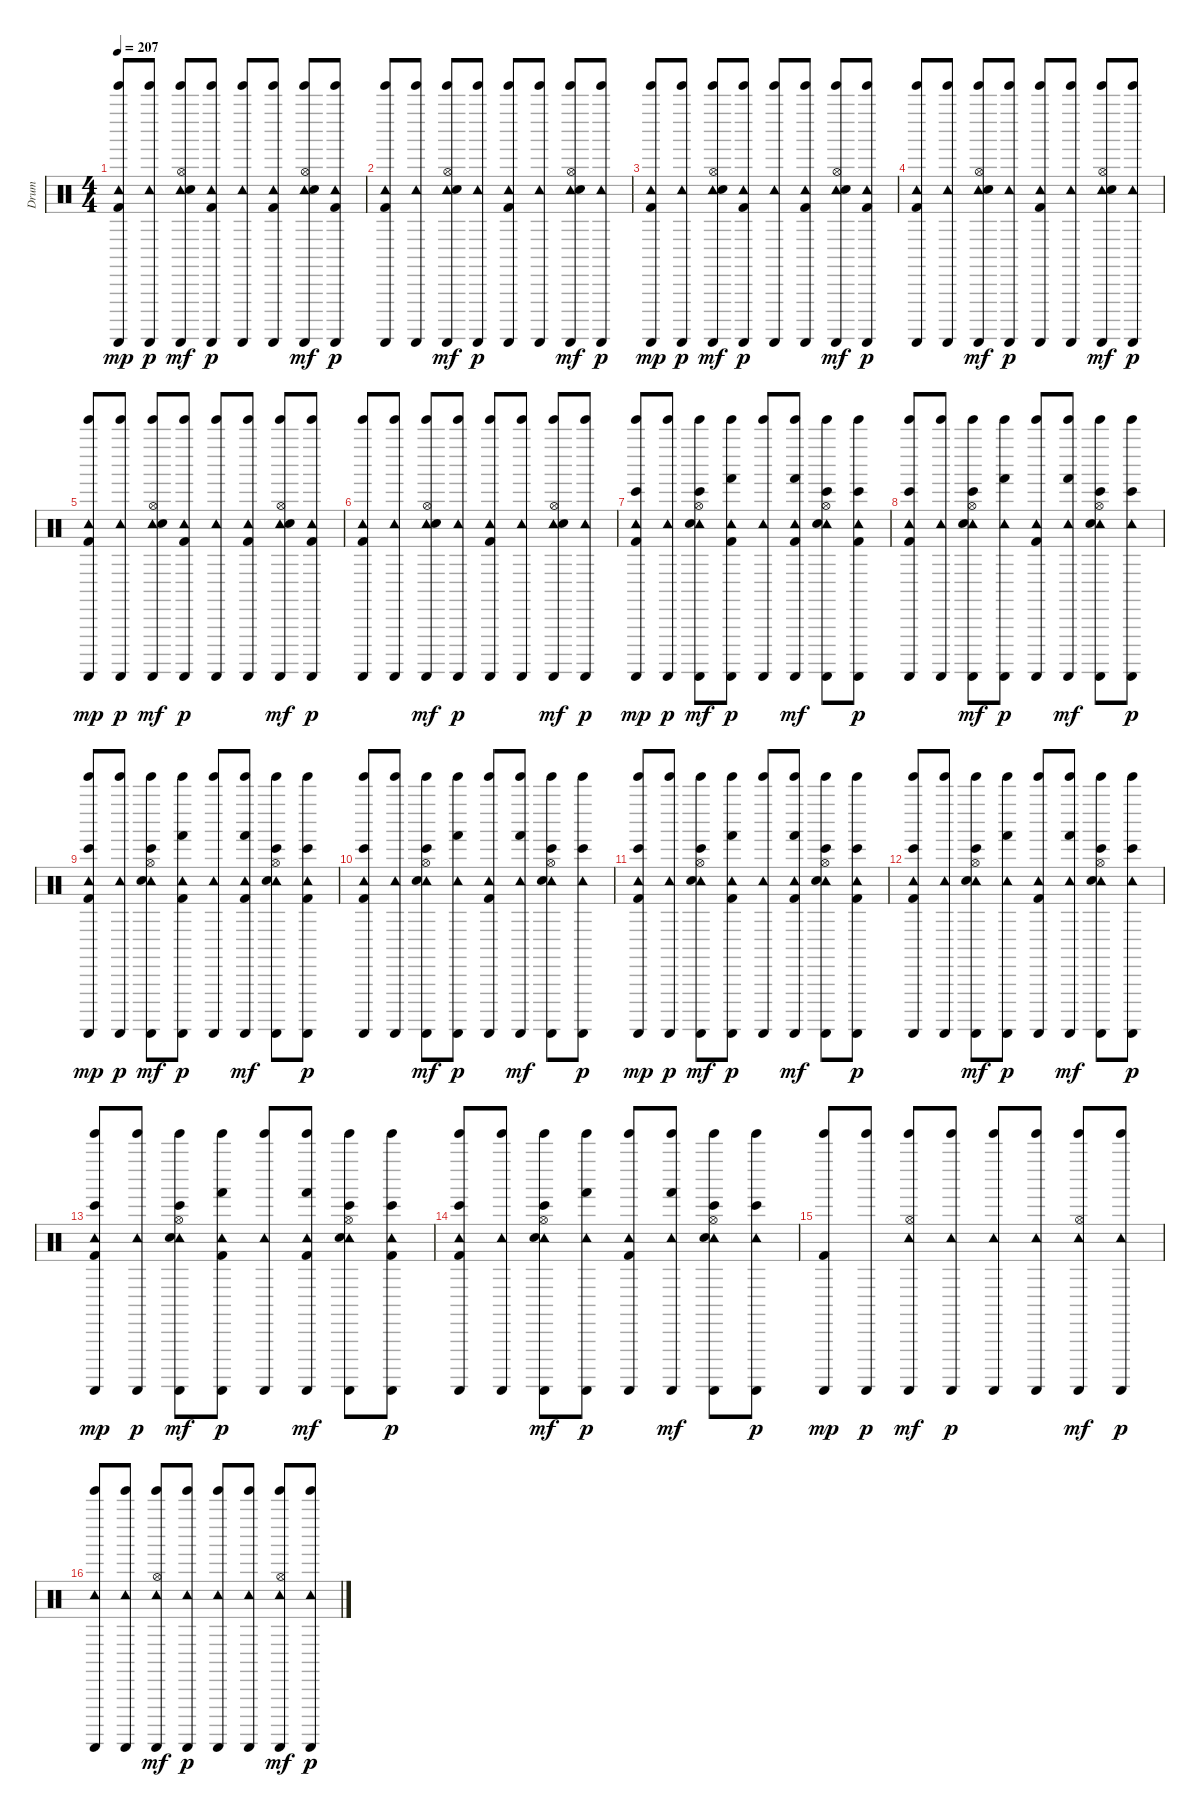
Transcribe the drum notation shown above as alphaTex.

\track ("Drum" "Drum") {instrument percussion}
\staff {score}
\articulation defaults
\ts (4 4)
\tempo 207
\clef neutral
\ks c
("Tambourine (hit)" "Kick (hit) 2" "Tinkle Bell (hit)" "Guiro (scrap-return)").8{dy mp} ("Tambourine (hit)" "Tinkle Bell (hit)" "Guiro (scrap-return)").8{dy p} ("Tambourine (hit)" "Hi-Hat (open)" "Snare (hit) 2" "Tinkle Bell (hit)" "Guiro (scrap-return)").8{dy mf} ("Tambourine (hit)" "Kick (hit) 2" "Tinkle Bell (hit)" "Guiro (scrap-return)").8{dy p} ("Tambourine (hit)" "Tinkle Bell (hit)" "Guiro (scrap-return)").8 ("Tambourine (hit)" "Kick (hit) 2" "Tinkle Bell (hit)" "Guiro (scrap-return)").8 ("Tambourine (hit)" "Hi-Hat (open)" "Snare (hit) 2" "Tinkle Bell (hit)" "Guiro (scrap-return)").8{dy mf} ("Tambourine (hit)" "Kick (hit) 2" "Tinkle Bell (hit)" "Guiro (scrap-return)").8{dy p} |
("Tambourine (hit)" "Kick (hit) 2" "Tinkle Bell (hit)" "Guiro (scrap-return)").8 ("Tambourine (hit)" "Tinkle Bell (hit)" "Guiro (scrap-return)").8 ("Tambourine (hit)" "Hi-Hat (open)" "Snare (hit) 2" "Tinkle Bell (hit)" "Guiro (scrap-return)").8{dy mf} ("Tambourine (hit)" "Tinkle Bell (hit)" "Guiro (scrap-return)").8{dy p} ("Tambourine (hit)" "Kick (hit) 2" "Tinkle Bell (hit)" "Guiro (scrap-return)").8 ("Tambourine (hit)" "Tinkle Bell (hit)" "Guiro (scrap-return)").8 ("Tambourine (hit)" "Hi-Hat (open)" "Snare (hit) 2" "Tinkle Bell (hit)" "Guiro (scrap-return)").8{dy mf} ("Tambourine (hit)" "Tinkle Bell (hit)" "Guiro (scrap-return)").8{dy p} |
("Tambourine (hit)" "Kick (hit) 2" "Tinkle Bell (hit)" "Guiro (scrap-return)").8{dy mp} ("Tambourine (hit)" "Tinkle Bell (hit)" "Guiro (scrap-return)").8{dy p} ("Tambourine (hit)" "Hi-Hat (open)" "Snare (hit) 2" "Tinkle Bell (hit)" "Guiro (scrap-return)").8{dy mf} ("Tambourine (hit)" "Kick (hit) 2" "Tinkle Bell (hit)" "Guiro (scrap-return)").8{dy p} ("Tambourine (hit)" "Tinkle Bell (hit)" "Guiro (scrap-return)").8 ("Tambourine (hit)" "Kick (hit) 2" "Tinkle Bell (hit)" "Guiro (scrap-return)").8 ("Tambourine (hit)" "Hi-Hat (open)" "Snare (hit) 2" "Tinkle Bell (hit)" "Guiro (scrap-return)").8{dy mf} ("Tambourine (hit)" "Kick (hit) 2" "Tinkle Bell (hit)" "Guiro (scrap-return)").8{dy p} |
("Tambourine (hit)" "Kick (hit) 2" "Tinkle Bell (hit)" "Guiro (scrap-return)").8 ("Tambourine (hit)" "Tinkle Bell (hit)" "Guiro (scrap-return)").8 ("Tambourine (hit)" "Hi-Hat (open)" "Snare (hit) 2" "Tinkle Bell (hit)" "Guiro (scrap-return)").8{dy mf} ("Tambourine (hit)" "Tinkle Bell (hit)" "Guiro (scrap-return)").8{dy p} ("Tambourine (hit)" "Kick (hit) 2" "Tinkle Bell (hit)" "Guiro (scrap-return)").8 ("Tambourine (hit)" "Tinkle Bell (hit)" "Guiro (scrap-return)").8 ("Tambourine (hit)" "Hi-Hat (open)" "Snare (hit) 2" "Tinkle Bell (hit)" "Guiro (scrap-return)").8{dy mf} ("Tambourine (hit)" "Tinkle Bell (hit)" "Guiro (scrap-return)").8{dy p} |
("Tambourine (hit)" "Kick (hit) 2" "Tinkle Bell (hit)" "Guiro (scrap-return)").8{dy mp} ("Tambourine (hit)" "Tinkle Bell (hit)" "Guiro (scrap-return)").8{dy p} ("Tambourine (hit)" "Hi-Hat (open)" "Snare (hit) 2" "Tinkle Bell (hit)" "Guiro (scrap-return)").8{dy mf} ("Tambourine (hit)" "Kick (hit) 2" "Tinkle Bell (hit)" "Guiro (scrap-return)").8{dy p} ("Tambourine (hit)" "Tinkle Bell (hit)" "Guiro (scrap-return)").8 ("Tambourine (hit)" "Kick (hit) 2" "Tinkle Bell (hit)" "Guiro (scrap-return)").8 ("Tambourine (hit)" "Hi-Hat (open)" "Snare (hit) 2" "Tinkle Bell (hit)" "Guiro (scrap-return)").8{dy mf} ("Tambourine (hit)" "Kick (hit) 2" "Tinkle Bell (hit)" "Guiro (scrap-return)").8{dy p} |
("Tambourine (hit)" "Kick (hit) 2" "Tinkle Bell (hit)" "Guiro (scrap-return)").8 ("Tambourine (hit)" "Tinkle Bell (hit)" "Guiro (scrap-return)").8 ("Tambourine (hit)" "Hi-Hat (open)" "Snare (hit) 2" "Tinkle Bell (hit)" "Guiro (scrap-return)").8{dy mf} ("Tambourine (hit)" "Tinkle Bell (hit)" "Guiro (scrap-return)").8{dy p} ("Tambourine (hit)" "Kick (hit) 2" "Tinkle Bell (hit)" "Guiro (scrap-return)").8 ("Tambourine (hit)" "Tinkle Bell (hit)" "Guiro (scrap-return)").8 ("Tambourine (hit)" "Hi-Hat (open)" "Snare (hit) 2" "Tinkle Bell (hit)" "Guiro (scrap-return)").8{dy mf} ("Tambourine (hit)" "Tinkle Bell (hit)" "Guiro (scrap-return)").8{dy p} |
("Tambourine (hit)" "Kick (hit) 2" "Tinkle Bell (hit)" "Guiro (scrap-return)" "Bongo High (hit)").8{dy mp} ("Tambourine (hit)" "Tinkle Bell (hit)" "Guiro (scrap-return)").8{dy p} ("Tambourine (hit)" "Hi-Hat (open)" "Snare (hit) 2" "Tinkle Bell (hit)" "Guiro (scrap-return)" "Bongo High (hit)").8{dy mf} ("Tambourine (hit)" "Kick (hit) 2" "Tinkle Bell (hit)" "Guiro (scrap-return)" "Hand (hit)").8{dy p} ("Tambourine (hit)" "Tinkle Bell (hit)" "Guiro (scrap-return)").8 ("Tambourine (hit)" "Kick (hit) 2" "Tinkle Bell (hit)" "Guiro (scrap-return)" "Hand (hit)").8{dy mf} ("Tambourine (hit)" "Hi-Hat (open)" "Snare (hit) 2" "Tinkle Bell (hit)" "Guiro (scrap-return)" "Bongo High (hit)").8 ("Tambourine (hit)" "Kick (hit) 2" "Tinkle Bell (hit)" "Guiro (scrap-return)" "Bongo High (hit)").8{dy p} |
("Tambourine (hit)" "Kick (hit) 2" "Tinkle Bell (hit)" "Guiro (scrap-return)" "Bongo High (hit)").8 ("Tambourine (hit)" "Tinkle Bell (hit)" "Guiro (scrap-return)").8 ("Tambourine (hit)" "Hi-Hat (open)" "Snare (hit) 2" "Tinkle Bell (hit)" "Guiro (scrap-return)" "Bongo High (hit)").8{dy mf} ("Tambourine (hit)" "Tinkle Bell (hit)" "Guiro (scrap-return)" "Hand (hit)").8{dy p} ("Tambourine (hit)" "Kick (hit) 2" "Tinkle Bell (hit)" "Guiro (scrap-return)").8 ("Tambourine (hit)" "Tinkle Bell (hit)" "Guiro (scrap-return)" "Hand (hit)").8{dy mf} ("Tambourine (hit)" "Hi-Hat (open)" "Snare (hit) 2" "Tinkle Bell (hit)" "Guiro (scrap-return)" "Bongo High (hit)").8 ("Tambourine (hit)" "Tinkle Bell (hit)" "Guiro (scrap-return)" "Bongo High (hit)").8{dy p} |
("Tambourine (hit)" "Kick (hit) 2" "Tinkle Bell (hit)" "Guiro (scrap-return)" "Bongo High (hit)").8{dy mp} ("Tambourine (hit)" "Tinkle Bell (hit)" "Guiro (scrap-return)").8{dy p} ("Tambourine (hit)" "Hi-Hat (open)" "Snare (hit) 2" "Tinkle Bell (hit)" "Guiro (scrap-return)" "Bongo High (hit)").8{dy mf} ("Tambourine (hit)" "Kick (hit) 2" "Tinkle Bell (hit)" "Guiro (scrap-return)" "Hand (hit)").8{dy p} ("Tambourine (hit)" "Tinkle Bell (hit)" "Guiro (scrap-return)").8 ("Tambourine (hit)" "Kick (hit) 2" "Tinkle Bell (hit)" "Guiro (scrap-return)" "Hand (hit)").8{dy mf} ("Tambourine (hit)" "Hi-Hat (open)" "Snare (hit) 2" "Tinkle Bell (hit)" "Guiro (scrap-return)" "Bongo High (hit)").8 ("Tambourine (hit)" "Kick (hit) 2" "Tinkle Bell (hit)" "Guiro (scrap-return)" "Bongo High (hit)").8{dy p} |
("Tambourine (hit)" "Kick (hit) 2" "Tinkle Bell (hit)" "Guiro (scrap-return)" "Bongo High (hit)").8 ("Tambourine (hit)" "Tinkle Bell (hit)" "Guiro (scrap-return)").8 ("Tambourine (hit)" "Hi-Hat (open)" "Snare (hit) 2" "Tinkle Bell (hit)" "Guiro (scrap-return)" "Bongo High (hit)").8{dy mf} ("Tambourine (hit)" "Tinkle Bell (hit)" "Guiro (scrap-return)" "Hand (hit)").8{dy p} ("Tambourine (hit)" "Kick (hit) 2" "Tinkle Bell (hit)" "Guiro (scrap-return)").8 ("Tambourine (hit)" "Tinkle Bell (hit)" "Guiro (scrap-return)" "Hand (hit)").8{dy mf} ("Tambourine (hit)" "Hi-Hat (open)" "Snare (hit) 2" "Tinkle Bell (hit)" "Guiro (scrap-return)" "Bongo High (hit)").8 ("Tambourine (hit)" "Tinkle Bell (hit)" "Guiro (scrap-return)" "Bongo High (hit)").8{dy p} |
("Tambourine (hit)" "Kick (hit) 2" "Tinkle Bell (hit)" "Guiro (scrap-return)" "Bongo High (hit)").8{dy mp} ("Tambourine (hit)" "Tinkle Bell (hit)" "Guiro (scrap-return)").8{dy p} ("Tambourine (hit)" "Hi-Hat (open)" "Snare (hit) 2" "Tinkle Bell (hit)" "Guiro (scrap-return)" "Bongo High (hit)").8{dy mf} ("Tambourine (hit)" "Kick (hit) 2" "Tinkle Bell (hit)" "Guiro (scrap-return)" "Hand (hit)").8{dy p} ("Tambourine (hit)" "Tinkle Bell (hit)" "Guiro (scrap-return)").8 ("Tambourine (hit)" "Kick (hit) 2" "Tinkle Bell (hit)" "Guiro (scrap-return)" "Hand (hit)").8{dy mf} ("Tambourine (hit)" "Hi-Hat (open)" "Snare (hit) 2" "Tinkle Bell (hit)" "Guiro (scrap-return)" "Bongo High (hit)").8 ("Tambourine (hit)" "Kick (hit) 2" "Tinkle Bell (hit)" "Guiro (scrap-return)" "Bongo High (hit)").8{dy p} |
("Tambourine (hit)" "Kick (hit) 2" "Tinkle Bell (hit)" "Guiro (scrap-return)" "Bongo High (hit)").8 ("Tambourine (hit)" "Tinkle Bell (hit)" "Guiro (scrap-return)").8 ("Tambourine (hit)" "Hi-Hat (open)" "Snare (hit) 2" "Tinkle Bell (hit)" "Guiro (scrap-return)" "Bongo High (hit)").8{dy mf} ("Tambourine (hit)" "Tinkle Bell (hit)" "Guiro (scrap-return)" "Hand (hit)").8{dy p} ("Tambourine (hit)" "Kick (hit) 2" "Tinkle Bell (hit)" "Guiro (scrap-return)").8 ("Tambourine (hit)" "Tinkle Bell (hit)" "Guiro (scrap-return)" "Hand (hit)").8{dy mf} ("Tambourine (hit)" "Hi-Hat (open)" "Snare (hit) 2" "Tinkle Bell (hit)" "Guiro (scrap-return)" "Bongo High (hit)").8 ("Tambourine (hit)" "Tinkle Bell (hit)" "Guiro (scrap-return)" "Bongo High (hit)").8{dy p} |
("Tambourine (hit)" "Kick (hit) 2" "Tinkle Bell (hit)" "Guiro (scrap-return)" "Bongo High (hit)").8{dy mp} ("Tambourine (hit)" "Tinkle Bell (hit)" "Guiro (scrap-return)").8{dy p} ("Tambourine (hit)" "Hi-Hat (open)" "Snare (hit) 2" "Tinkle Bell (hit)" "Guiro (scrap-return)" "Bongo High (hit)").8{dy mf} ("Tambourine (hit)" "Kick (hit) 2" "Tinkle Bell (hit)" "Guiro (scrap-return)" "Hand (hit)").8{dy p} ("Tambourine (hit)" "Tinkle Bell (hit)" "Guiro (scrap-return)").8 ("Tambourine (hit)" "Kick (hit) 2" "Tinkle Bell (hit)" "Guiro (scrap-return)" "Hand (hit)").8{dy mf} ("Tambourine (hit)" "Hi-Hat (open)" "Snare (hit) 2" "Tinkle Bell (hit)" "Guiro (scrap-return)" "Bongo High (hit)").8 ("Tambourine (hit)" "Kick (hit) 2" "Tinkle Bell (hit)" "Guiro (scrap-return)" "Bongo High (hit)").8{dy p} |
("Tambourine (hit)" "Kick (hit) 2" "Tinkle Bell (hit)" "Guiro (scrap-return)" "Bongo High (hit)").8 ("Tambourine (hit)" "Tinkle Bell (hit)" "Guiro (scrap-return)").8 ("Tambourine (hit)" "Hi-Hat (open)" "Snare (hit) 2" "Tinkle Bell (hit)" "Guiro (scrap-return)" "Bongo High (hit)").8{dy mf} ("Tambourine (hit)" "Tinkle Bell (hit)" "Guiro (scrap-return)" "Hand (hit)").8{dy p} ("Tambourine (hit)" "Kick (hit) 2" "Tinkle Bell (hit)" "Guiro (scrap-return)").8 ("Tambourine (hit)" "Tinkle Bell (hit)" "Guiro (scrap-return)" "Hand (hit)").8{dy mf} ("Tambourine (hit)" "Hi-Hat (open)" "Snare (hit) 2" "Tinkle Bell (hit)" "Guiro (scrap-return)" "Bongo High (hit)").8 ("Tambourine (hit)" "Tinkle Bell (hit)" "Guiro (scrap-return)" "Bongo High (hit)").8{dy p} |
("Kick (hit) 2" "Tinkle Bell (hit)" "Guiro (scrap-return)").8{dy mp} ("Tinkle Bell (hit)" "Guiro (scrap-return)").8{dy p} ("Tambourine (hit)" "Hi-Hat (open)" "Tinkle Bell (hit)" "Guiro (scrap-return)").8{dy mf} ("Tambourine (hit)" "Tinkle Bell (hit)" "Guiro (scrap-return)").8{dy p} ("Tambourine (hit)" "Tinkle Bell (hit)" "Guiro (scrap-return)").8 ("Tambourine (hit)" "Tinkle Bell (hit)" "Guiro (scrap-return)").8 ("Tambourine (hit)" "Hi-Hat (open)" "Tinkle Bell (hit)" "Guiro (scrap-return)").8{dy mf} ("Tambourine (hit)" "Tinkle Bell (hit)" "Guiro (scrap-return)").8{dy p} |
("Tambourine (hit)" "Tinkle Bell (hit)" "Guiro (scrap-return)").8 ("Tambourine (hit)" "Tinkle Bell (hit)" "Guiro (scrap-return)").8 ("Tambourine (hit)" "Hi-Hat (open)" "Tinkle Bell (hit)" "Guiro (scrap-return)").8{dy mf} ("Tambourine (hit)" "Tinkle Bell (hit)" "Guiro (scrap-return)").8{dy p} ("Tambourine (hit)" "Tinkle Bell (hit)" "Guiro (scrap-return)").8 ("Tambourine (hit)" "Tinkle Bell (hit)" "Guiro (scrap-return)").8 ("Tambourine (hit)" "Hi-Hat (open)" "Tinkle Bell (hit)" "Guiro (scrap-return)").8{dy mf} ("Tambourine (hit)" "Tinkle Bell (hit)" "Guiro (scrap-return)").8{dy p}
